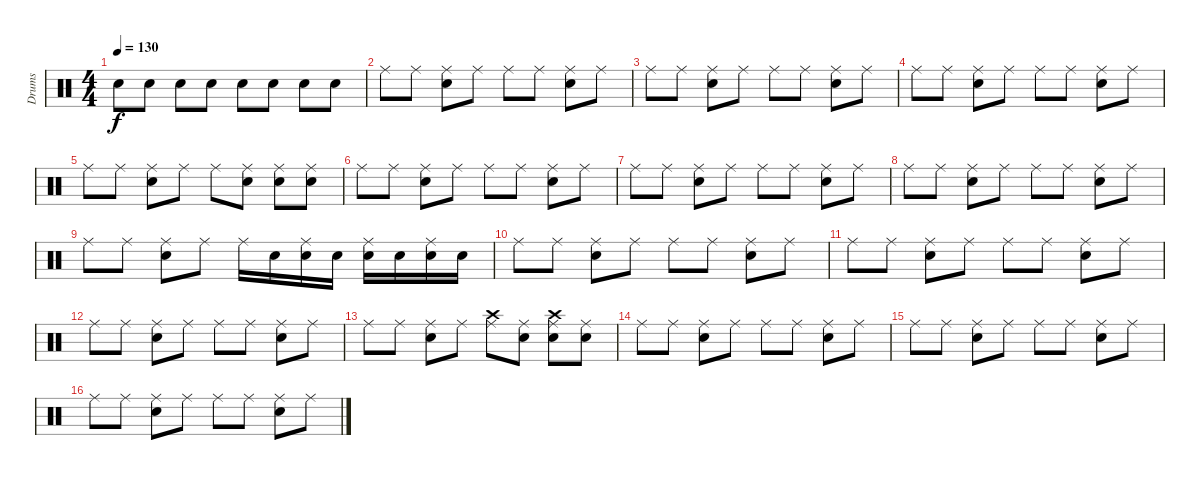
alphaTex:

\track ("Drums" "Drums") {instrument percussion}
\staff {score}
\articulation defaults
\ts (4 4)
\tempo 130
\clef neutral
\ks c "Snare (hit) 2".8{dy f} "Snare (hit) 2".8 "Snare (hit) 2".8 "Snare (hit) 2".8 "Snare (hit) 2".8 "Snare (hit) 2".8 "Snare (hit) 2".8 "Snare (hit) 2".8
|
"Ride (middle)".8 "Ride (middle)".8 ("Ride (middle)" "Snare (hit) 2").8 "Ride (middle)".8 "Ride (middle)".8 "Ride (middle)".8 ("Ride (middle)" "Snare (hit) 2").8 "Ride (middle)".8 |
"Ride (middle)".8 "Ride (middle)".8 ("Ride (middle)" "Snare (hit) 2").8 "Ride (middle)".8 "Ride (middle)".8 "Ride (middle)".8 ("Ride (middle)" "Snare (hit) 2").8 "Ride (middle)".8 |
"Ride (middle)".8 "Ride (middle)".8 ("Ride (middle)" "Snare (hit) 2").8 "Ride (middle)".8 "Ride (middle)".8 "Ride (middle)".8 ("Ride (middle)" "Snare (hit) 2").8 "Ride (middle)".8 |
"Ride (middle)".8 "Ride (middle)".8 ("Ride (middle)" "Snare (hit) 2").8 "Ride (middle)".8 "Ride (middle)".8 ("Ride (middle)" "Snare (hit) 2").8 ("Ride (middle)" "Snare (hit) 2").8 ("Ride (middle)" "Snare (hit) 2").8 |
"Ride (middle)".8 "Ride (middle)".8 ("Ride (middle)" "Snare (hit) 2").8 "Ride (middle)".8 "Ride (middle)".8 "Ride (middle)".8 ("Ride (middle)" "Snare (hit) 2").8 "Ride (middle)".8 |
"Ride (middle)".8 "Ride (middle)".8 ("Ride (middle)" "Snare (hit) 2").8 "Ride (middle)".8 "Ride (middle)".8 "Ride (middle)".8 ("Ride (middle)" "Snare (hit) 2").8 "Ride (middle)".8 |
"Ride (middle)".8 "Ride (middle)".8 ("Ride (middle)" "Snare (hit) 2").8 "Ride (middle)".8 "Ride (middle)".8 "Ride (middle)".8 ("Ride (middle)" "Snare (hit) 2").8 "Ride (middle)".8 |
"Ride (middle)".8 "Ride (middle)".8 ("Ride (middle)" "Snare (hit) 2").8 "Ride (middle)".8 "Ride (middle)".16 "Snare (hit) 2".16 ("Ride (middle)" "Snare (hit) 2").16 "Snare (hit) 2".16 ("Ride (middle)" "Snare (hit) 2").16 "Snare (hit) 2".16 ("Ride (middle)" "Snare (hit) 2").16 "Snare (hit) 2".16 |
"Ride (middle)".8 "Ride (middle)".8 ("Ride (middle)" "Snare (hit) 2").8 "Ride (middle)".8 "Ride (middle)".8 "Ride (middle)".8 ("Ride (middle)" "Snare (hit) 2").8 "Ride (middle)".8 |
"Ride (middle)".8 "Ride (middle)".8 ("Ride (middle)" "Snare (hit) 2").8 "Ride (middle)".8 "Ride (middle)".8 "Ride (middle)".8 ("Ride (middle)" "Snare (hit) 2").8 "Ride (middle)".8 |
"Ride (middle)".8 "Ride (middle)".8 ("Ride (middle)" "Snare (hit) 2").8 "Ride (middle)".8 "Ride (middle)".8 "Ride (middle)".8 ("Ride (middle)" "Snare (hit) 2").8 "Ride (middle)".8 |
"Ride (middle)".8 "Ride (middle)".8 ("Ride (middle)" "Snare (hit) 2").8 "Ride (middle)".8 ("Ride (middle)" "Crash high (hit)").8 ("Ride (middle)" "Snare (hit) 2").8 ("Ride (middle)" "Snare (hit) 2" "Crash high (hit)").8 ("Ride (middle)" "Snare (hit) 2").8 |
"Ride (middle)".8 "Ride (middle)".8 ("Ride (middle)" "Snare (hit) 2").8 "Ride (middle)".8 "Ride (middle)".8 "Ride (middle)".8 ("Ride (middle)" "Snare (hit) 2").8 "Ride (middle)".8 |
"Ride (middle)".8 "Ride (middle)".8 ("Ride (middle)" "Snare (hit) 2").8 "Ride (middle)".8 "Ride (middle)".8 "Ride (middle)".8 ("Ride (middle)" "Snare (hit) 2").8 "Ride (middle)".8 |
"Ride (middle)".8 "Ride (middle)".8 ("Ride (middle)" "Snare (hit) 2").8 "Ride (middle)".8 "Ride (middle)".8 "Ride (middle)".8 ("Ride (middle)" "Snare (hit) 2").8 "Ride (middle)".8
